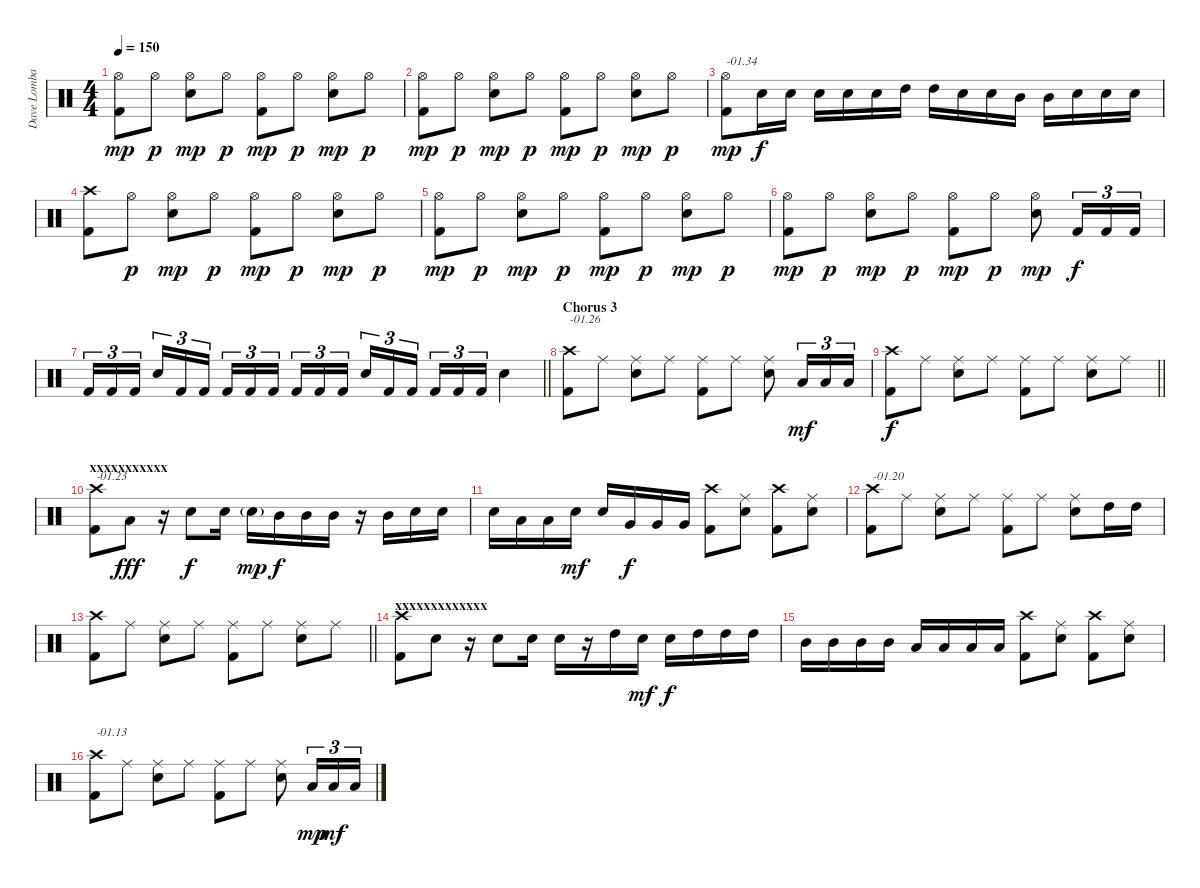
\track ("Dave Lombardo (Drums)" "Dave Lomba") {instrument percussion}
\staff {score}
\articulation defaults
\ts (4 4)
\tempo 150
\clef neutral
\ks c
("Hi-Hat (open)" "Kick (hit) 2").8{dy mp} "Hi-Hat (open)".8{dy p} ("Hi-Hat (open)" "Electric Snare (hit)").8{dy mp} "Hi-Hat (open)".8{dy p} ("Hi-Hat (open)" "Kick (hit) 2").8{dy mp} "Hi-Hat (open)".8{dy p} ("Hi-Hat (open)" "Electric Snare (hit)").8{dy mp} "Hi-Hat (open)".8{dy p} |
("Hi-Hat (open)" "Kick (hit) 2").8{dy mp} "Hi-Hat (open)".8{dy p} ("Hi-Hat (open)" "Electric Snare (hit)").8{dy mp} "Hi-Hat (open)".8{dy p} ("Hi-Hat (open)" "Kick (hit) 2").8{dy mp} "Hi-Hat (open)".8{dy p} ("Hi-Hat (open)" "Electric Snare (hit)").8{dy mp} "Hi-Hat (open)".8{dy p} |
("Hi-Hat (open)" "Kick (hit) 2").8{txt "-01.34" dy mp} "Electric Snare (hit)".16{dy f} "Electric Snare (hit)".16 "Electric Snare (hit)".16 "Electric Snare (hit)".16 "Electric Snare (hit)".16 "High Tom (hit)".16 "High Tom (hit)".16 "Electric Snare (hit)".16 "Electric Snare (hit)".16 "Mid Tom (hit)".16 "Mid Tom (hit)".16 "Electric Snare (hit)".16 "Electric Snare (hit)".16 "Electric Snare (hit)".16 |
("Crash high (hit)" "Kick (hit) 2").8 "Hi-Hat (open)".8{dy p} ("Hi-Hat (open)" "Electric Snare (hit)").8{dy mp} "Hi-Hat (open)".8{dy p} ("Hi-Hat (open)" "Kick (hit) 2").8{dy mp} "Hi-Hat (open)".8{dy p} ("Hi-Hat (open)" "Electric Snare (hit)").8{dy mp} "Hi-Hat (open)".8{dy p} |
("Hi-Hat (open)" "Kick (hit) 2").8{dy mp} "Hi-Hat (open)".8{dy p} ("Hi-Hat (open)" "Electric Snare (hit)").8{dy mp} "Hi-Hat (open)".8{dy p} ("Hi-Hat (open)" "Kick (hit) 2").8{dy mp} "Hi-Hat (open)".8{dy p} ("Hi-Hat (open)" "Electric Snare (hit)").8{dy mp} "Hi-Hat (open)".8{dy p} |
("Hi-Hat (open)" "Kick (hit) 2").8{dy mp} "Hi-Hat (open)".8{dy p} ("Hi-Hat (open)" "Electric Snare (hit)").8{dy mp} "Hi-Hat (open)".8{dy p} ("Hi-Hat (open)" "Kick (hit) 2").8{dy mp} "Hi-Hat (open)".8{dy p} ("Hi-Hat (open)" "Electric Snare (hit)").8{dy mp} "Kick (hit) 2".16{tu (3 2) dy f} "Kick (hit) 2".16{tu (3 2)} "Kick (hit) 2".16{tu (3 2)} |
\barLineRight lightlight "Kick (hit) 2".16{tu (3 2)} "Kick (hit) 2".16{tu (3 2)} "Kick (hit) 2".16{tu (3 2) beam splitsecondary} "Electric Snare (hit)".16{tu (3 2)} "Kick (hit) 2".16{tu (3 2)} "Kick (hit) 2".16{tu (3 2)} "Kick (hit) 2".16{tu (3 2)} "Kick (hit) 2".16{tu (3 2)} "Kick (hit) 2".16{tu (3 2) beam splitsecondary} "Kick (hit) 2".16{tu (3 2)} "Kick (hit) 2".16{tu (3 2)} "Kick (hit) 2".16{tu (3 2)} "Electric Snare (hit)".16{tu (3 2)} "Kick (hit) 2".16{tu (3 2)} "Kick (hit) 2".16{tu (3 2) beam splitsecondary} "Kick (hit) 2".16{tu (3 2)} "Kick (hit) 2".16{tu (3 2)} "Kick (hit) 2".16{tu (3 2)} "Electric Snare (hit)".4
|
\section ("" "Chorus 3")
("Crash high (hit)" "Kick (hit) 2").8{txt "-01.26"} "Ride (middle)".8 ("Ride (middle)" "Electric Snare (hit)").8 "Ride (middle)".8 ("Ride (middle)" "Kick (hit) 2").8 "Ride (middle)".8 ("Ride (middle)" "Electric Snare (hit)").8 "Low Tom (hit)".16{tu (3 2) dy mf} "Low Tom (hit)".16{tu (3 2)} "Low Tom (hit)".16{tu (3 2)} |
\barLineRight lightlight
("Crash high (hit)" "Kick (hit) 2").8{dy f} "Ride (middle)".8 ("Ride (middle)" "Electric Snare (hit)").8 "Ride (middle)".8 ("Ride (middle)" "Kick (hit) 2").8 "Ride (middle)".8 ("Ride (middle)" "Electric Snare (hit)").8 "Ride (middle)".8 |
\section ("" "xxxxxxxxxxx")
("Crash high (hit)" "Kick (hit) 2").8{txt "-01.23"} "Low Tom (hit)".8{dy fff} r.16 "Electric Snare (hit)".8{dy f} "Electric Snare (hit)".16 "Electric Snare (hit)"{g}.16{dy mp} "Mid Tom (hit)".16{dy f} "Mid Tom (hit)".16 "Mid Tom (hit)".16 r.16 "Mid Tom (hit)".16 "Electric Snare (hit)".16 "Electric Snare (hit)".16 |
"Electric Snare (hit)".16 "Low Tom (hit)".16 "Low Tom (hit)".16 "Electric Snare (hit)".16{dy mf} "Electric Snare (hit)".16 "Very Low Tom (hit)".16{dy f} "Very Low Tom (hit)".16 "Very Low Tom (hit)".16 ("Crash high (hit)" "Kick (hit) 2").8 ("Ride (middle)" "Electric Snare (hit)").8 ("Crash high (hit)" "Kick (hit) 2").8 ("Ride (middle)" "Electric Snare (hit)").8 |
("Crash high (hit)" "Kick (hit) 2").8{txt "-01.20"} "Ride (middle)".8 ("Ride (middle)" "Electric Snare (hit)").8 "Ride (middle)".8 ("Ride (middle)" "Kick (hit) 2").8 "Ride (middle)".8 ("Ride (middle)" "Electric Snare (hit)").8 "High Tom (hit)".16 "High Tom (hit)".16 |
\barLineRight lightlight
("Crash high (hit)" "Kick (hit) 2").8 "Ride (middle)".8 ("Ride (middle)" "Electric Snare (hit)").8 "Ride (middle)".8 ("Ride (middle)" "Kick (hit) 2").8 "Ride (middle)".8 ("Ride (middle)" "Electric Snare (hit)").8 "Ride (middle)".8 |
\section ("" "xxxxxxxxxxxxx")
("Crash high (hit)" "Kick (hit) 2").8 "Electric Snare (hit)".8 r.16 "Electric Snare (hit)".8 "Electric Snare (hit)".16 "Electric Snare (hit)".16 r.16 "High Tom (hit)".16 "Electric Snare (hit)".16{dy mf} "Electric Snare (hit)".16{dy f} "High Tom (hit)".16 "High Tom (hit)".16 "High Tom (hit)".16 |
"Mid Tom (hit)".16 "Mid Tom (hit)".16 "Mid Tom (hit)".16 "Mid Tom (hit)".16 "Low Tom (hit)".16 "Low Tom (hit)".16 "Low Tom (hit)".16 "Low Tom (hit)".16 ("Crash high (hit)" "Kick (hit) 2").8 ("Ride (middle)" "Electric Snare (hit)").8 ("Crash high (hit)" "Kick (hit) 2").8 ("Ride (middle)" "Electric Snare (hit)").8 |
("Crash high (hit)" "Kick (hit) 2").8{txt "-01.13"} "Ride (middle)".8 ("Ride (middle)" "Electric Snare (hit)").8 "Ride (middle)".8 ("Ride (middle)" "Kick (hit) 2").8 "Ride (middle)".8 ("Ride (middle)" "Electric Snare (hit)").8 "Low Tom (hit)".16{tu (3 2) dy mp} "Low Tom (hit)".16{tu (3 2) dy mf} "Low Tom (hit)".16{tu (3 2)}
